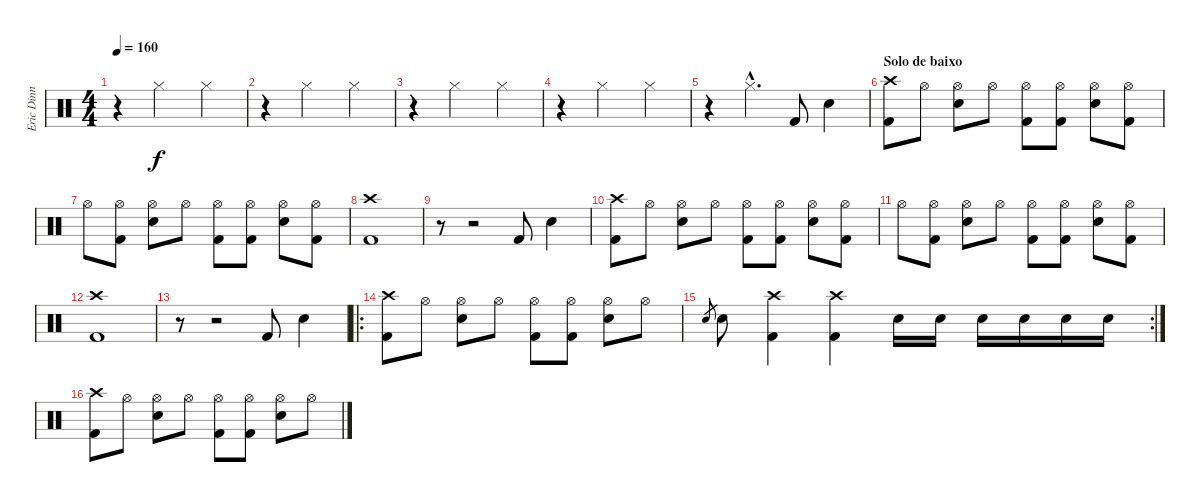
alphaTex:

\track ("Eric Dinn" "Eric Dinn") {instrument percussion}
\staff {score}
\articulation defaults
\ts (4 4)
\tempo 160
\clef neutral
\ks c
r.4{dy f} "Hi-Hat (closed)".2 "Hi-Hat (closed)".4 |
r.4 "Hi-Hat (closed)".2 "Hi-Hat (closed)".4 |
r.4 "Hi-Hat (closed)".2 "Hi-Hat (closed)".4 |
r.4 "Hi-Hat (closed)".2 "Hi-Hat (closed)".4 |
r.4 "Hi-Hat (closed)"{hac}.4{d} "Kick (hit) 2".8 "Snare (hit) 2".4 |
\section ("" "Solo de baixo")
("Crash high (hit)" "Kick (hit) 2").8 "Hi-Hat (open)".8 ("Hi-Hat (open)" "Snare (hit) 2").8 "Hi-Hat (open)".8 ("Hi-Hat (open)" "Kick (hit) 2").8 ("Hi-Hat (open)" "Kick (hit) 2").8 ("Hi-Hat (open)" "Snare (hit) 2").8 ("Hi-Hat (open)" "Kick (hit) 2").8 |
"Hi-Hat (open)".8 ("Hi-Hat (open)" "Kick (hit) 2").8 ("Hi-Hat (open)" "Snare (hit) 2").8 "Hi-Hat (open)".8 ("Hi-Hat (open)" "Kick (hit) 2").8 ("Hi-Hat (open)" "Kick (hit) 2").8 ("Hi-Hat (open)" "Snare (hit) 2").8 ("Hi-Hat (open)" "Kick (hit) 2").8 |
("Crash high (hit)" "Kick (hit) 2").1 |
r.8 r.2 "Kick (hit) 2".8 "Snare (hit) 2".4 |
("Crash high (hit)" "Kick (hit) 2").8 "Hi-Hat (open)".8 ("Hi-Hat (open)" "Snare (hit) 2").8 "Hi-Hat (open)".8 ("Hi-Hat (open)" "Kick (hit) 2").8 ("Hi-Hat (open)" "Kick (hit) 2").8 ("Hi-Hat (open)" "Snare (hit) 2").8 ("Hi-Hat (open)" "Kick (hit) 2").8 |
"Hi-Hat (open)".8 ("Hi-Hat (open)" "Kick (hit) 2").8 ("Hi-Hat (open)" "Snare (hit) 2").8 "Hi-Hat (open)".8 ("Hi-Hat (open)" "Kick (hit) 2").8 ("Hi-Hat (open)" "Kick (hit) 2").8 ("Hi-Hat (open)" "Snare (hit) 2").8 ("Hi-Hat (open)" "Kick (hit) 2").8 |
("Crash high (hit)" "Kick (hit) 2").1 |
r.8 r.2 "Kick (hit) 2".8 "Snare (hit) 2".4 |
\ro
("Crash high (hit)" "Kick (hit) 2").8 "Hi-Hat (open)".8 ("Hi-Hat (open)" "Snare (hit) 2").8 "Hi-Hat (open)".8 ("Hi-Hat (open)" "Kick (hit) 2").8 ("Hi-Hat (open)" "Kick (hit) 2").8 ("Hi-Hat (open)" "Snare (hit) 2").8 "Hi-Hat (open)".8 |
\rc 2 "Snare (hit) 2".8{gr} "Snare (hit) 2".8
("Crash high (hit)" "Kick (hit) 2").4 ("Crash high (hit)" "Kick (hit) 2").4 "Snare (hit) 2".16 "Snare (hit) 2".16 "Snare (hit) 2".16 "Snare (hit) 2".16 "Snare (hit) 2".16 "Snare (hit) 2".16 |
("Crash high (hit)" "Kick (hit) 2").8 "Hi-Hat (open)".8 ("Hi-Hat (open)" "Snare (hit) 2").8 "Hi-Hat (open)".8 ("Hi-Hat (open)" "Kick (hit) 2").8 ("Hi-Hat (open)" "Kick (hit) 2").8 ("Hi-Hat (open)" "Snare (hit) 2").8 "Hi-Hat (open)".8
